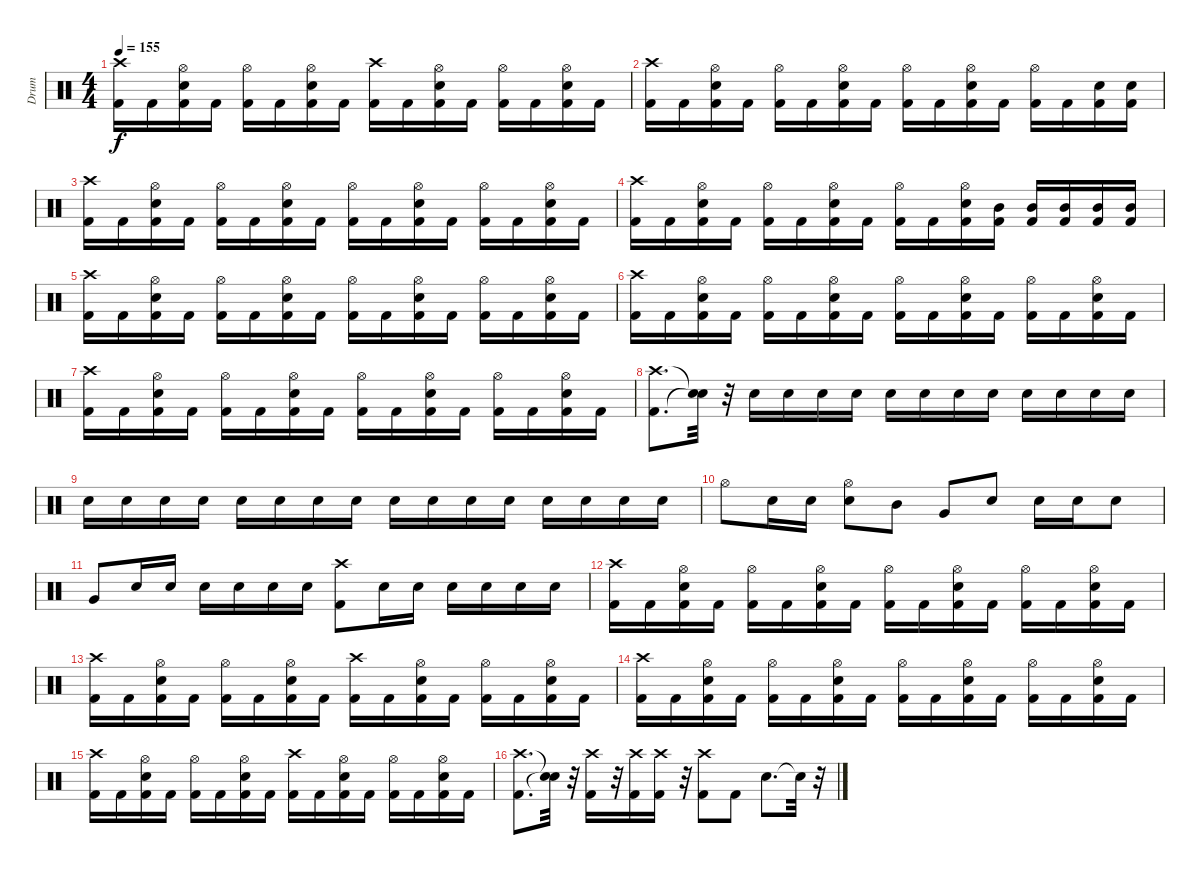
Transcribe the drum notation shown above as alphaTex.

\track ("Drum" "Drum") {instrument percussion}
\staff {score}
\articulation defaults
\ts (4 4)
\tempo 155
\clef neutral
\ks c
("Kick (hit) 2" "Crash high (hit)").16{dy f} "Kick (hit) 2".16 ("Kick (hit) 2" "Snare (hit) 2" "Hi-Hat (open)").16 "Kick (hit) 2".16 ("Kick (hit) 2" "Hi-Hat (open)").16 "Kick (hit) 2".16 ("Kick (hit) 2" "Snare (hit) 2" "Hi-Hat (open)").16 "Kick (hit) 2".16 ("Kick (hit) 2" "Crash high (hit)").16 "Kick (hit) 2".16 ("Kick (hit) 2" "Snare (hit) 2" "Hi-Hat (open)").16 "Kick (hit) 2".16 ("Kick (hit) 2" "Hi-Hat (open)").16 "Kick (hit) 2".16 ("Kick (hit) 2" "Snare (hit) 2" "Hi-Hat (open)").16 "Kick (hit) 2".16 |
("Kick (hit) 2" "Crash high (hit)").16 "Kick (hit) 2".16 ("Kick (hit) 2" "Snare (hit) 2" "Hi-Hat (open)").16 "Kick (hit) 2".16 ("Kick (hit) 2" "Hi-Hat (open)").16 "Kick (hit) 2".16 ("Kick (hit) 2" "Snare (hit) 2" "Hi-Hat (open)").16 "Kick (hit) 2".16 ("Kick (hit) 2" "Hi-Hat (open)").16 "Kick (hit) 2".16 ("Kick (hit) 2" "Snare (hit) 2" "Hi-Hat (open)").16 "Kick (hit) 2".16 ("Kick (hit) 2" "Hi-Hat (open)").16 "Kick (hit) 2".16 ("Kick (hit) 2" "Snare (hit) 2").16 ("Kick (hit) 2" "Snare (hit) 2").16 |
("Kick (hit) 2" "Crash high (hit)").16 "Kick (hit) 2".16 ("Kick (hit) 2" "Snare (hit) 2" "Hi-Hat (open)").16 "Kick (hit) 2".16 ("Kick (hit) 2" "Hi-Hat (open)").16 "Kick (hit) 2".16 ("Kick (hit) 2" "Snare (hit) 2" "Hi-Hat (open)").16 "Kick (hit) 2".16 ("Kick (hit) 2" "Hi-Hat (open)").16 "Kick (hit) 2".16 ("Kick (hit) 2" "Snare (hit) 2" "Hi-Hat (open)").16 "Kick (hit) 2".16 ("Kick (hit) 2" "Hi-Hat (open)").16 "Kick (hit) 2".16 ("Kick (hit) 2" "Snare (hit) 2" "Hi-Hat (open)").16 "Kick (hit) 2".16 |
("Kick (hit) 2" "Crash high (hit)").16 "Kick (hit) 2".16 ("Kick (hit) 2" "Snare (hit) 2" "Hi-Hat (open)").16 "Kick (hit) 2".16 ("Kick (hit) 2" "Hi-Hat (open)").16 "Kick (hit) 2".16 ("Kick (hit) 2" "Snare (hit) 2" "Hi-Hat (open)").16 "Kick (hit) 2".16 ("Kick (hit) 2" "Hi-Hat (open)").16 "Kick (hit) 2".16 ("Kick (hit) 2" "Hi-Hat (open)" "Snare (hit) 2").16 ("Kick (hit) 2" "Mid Tom (hit)").16 ("Kick (hit) 2" "Mid Tom (hit)").16 ("Kick (hit) 2" "Mid Tom (hit)").16 ("Kick (hit) 2" "Mid Tom (hit)").16 ("Kick (hit) 2" "Mid Tom (hit)").16 |
("Kick (hit) 2" "Crash high (hit)").16 "Kick (hit) 2".16 ("Kick (hit) 2" "Snare (hit) 2" "Hi-Hat (open)").16 "Kick (hit) 2".16 ("Kick (hit) 2" "Hi-Hat (open)").16 "Kick (hit) 2".16 ("Kick (hit) 2" "Snare (hit) 2" "Hi-Hat (open)").16 "Kick (hit) 2".16 ("Kick (hit) 2" "Hi-Hat (open)").16 "Kick (hit) 2".16 ("Kick (hit) 2" "Snare (hit) 2" "Hi-Hat (open)").16 "Kick (hit) 2".16 ("Kick (hit) 2" "Hi-Hat (open)").16 "Kick (hit) 2".16 ("Kick (hit) 2" "Snare (hit) 2" "Hi-Hat (open)").16 "Kick (hit) 2".16 |
("Kick (hit) 2" "Crash high (hit)").16 "Kick (hit) 2".16 ("Kick (hit) 2" "Snare (hit) 2" "Hi-Hat (open)").16 "Kick (hit) 2".16 ("Kick (hit) 2" "Hi-Hat (open)").16 "Kick (hit) 2".16 ("Kick (hit) 2" "Snare (hit) 2" "Hi-Hat (open)").16 "Kick (hit) 2".16 ("Kick (hit) 2" "Hi-Hat (open)").16 "Kick (hit) 2".16 ("Kick (hit) 2" "Snare (hit) 2" "Hi-Hat (open)").16 "Kick (hit) 2".16 ("Kick (hit) 2" "Hi-Hat (open)").16 "Kick (hit) 2".16 ("Kick (hit) 2" "Snare (hit) 2" "Hi-Hat (open)").16 "Kick (hit) 2".16 |
("Kick (hit) 2" "Crash high (hit)").16 "Kick (hit) 2".16 ("Kick (hit) 2" "Snare (hit) 2" "Hi-Hat (open)").16 "Kick (hit) 2".16 ("Kick (hit) 2" "Hi-Hat (open)").16 "Kick (hit) 2".16 ("Kick (hit) 2" "Snare (hit) 2" "Hi-Hat (open)").16 "Kick (hit) 2".16 ("Kick (hit) 2" "Hi-Hat (open)").16 "Kick (hit) 2".16 ("Kick (hit) 2" "Snare (hit) 2" "Hi-Hat (open)").16 "Kick (hit) 2".16 ("Kick (hit) 2" "Hi-Hat (open)").16 "Kick (hit) 2".16 ("Kick (hit) 2" "Snare (hit) 2" "Hi-Hat (open)").16 "Kick (hit) 2".16 |
("Kick (hit) 2" "Crash high (hit)").8{d} ("Snare (hit)"{t} "Snare (hit)"{t}).32 r.32 "Snare (hit) 2".16 "Snare (hit) 2".16 "Snare (hit) 2".16 "Snare (hit) 2".16 "Snare (hit) 2".16 "Snare (hit) 2".16 "Snare (hit) 2".16 "Snare (hit) 2".16 "Snare (hit) 2".16 "Snare (hit) 2".16 "Snare (hit) 2".16 "Snare (hit) 2".16 |
"Snare (hit) 2".16 "Snare (hit) 2".16 "Snare (hit) 2".16 "Snare (hit) 2".16 "Snare (hit) 2".16 "Snare (hit) 2".16 "Snare (hit) 2".16 "Snare (hit) 2".16 "Snare (hit) 2".16 "Snare (hit) 2".16 "Snare (hit) 2".16 "Snare (hit) 2".16 "Snare (hit) 2".16 "Snare (hit) 2".16 "Snare (hit) 2".16 "Snare (hit) 2".16 |
"Hi-Hat (open)".8 "Snare (hit) 2".16 "Snare (hit) 2".16 ("Snare (hit) 2" "Hi-Hat (open)").8 "Mid Tom (hit)".8 "Very Low Tom (hit)".8 "Snare (hit) 2".8 "Snare (hit) 2".16 "Snare (hit) 2".16 "Snare (hit) 2".8 |
"Very Low Tom (hit)".8 "Snare (hit) 2".16 "Snare (hit) 2".16 "Snare (hit) 2".16 "Snare (hit) 2".16 "Snare (hit) 2".16 "Snare (hit) 2".16 ("Crash high (hit)" "Kick (hit) 2").8 "Snare (hit) 2".16 "Snare (hit) 2".16 "Snare (hit) 2".16 "Snare (hit) 2".16 "Snare (hit) 2".16 "Snare (hit) 2".16 |
("Kick (hit) 2" "Crash high (hit)").16 "Kick (hit) 2".16 ("Kick (hit) 2" "Snare (hit) 2" "Hi-Hat (open)").16 "Kick (hit) 2".16 ("Kick (hit) 2" "Hi-Hat (open)").16 "Kick (hit) 2".16 ("Kick (hit) 2" "Snare (hit) 2" "Hi-Hat (open)").16 "Kick (hit) 2".16 ("Kick (hit) 2" "Hi-Hat (open)").16 "Kick (hit) 2".16 ("Kick (hit) 2" "Snare (hit) 2" "Hi-Hat (open)").16 "Kick (hit) 2".16 ("Kick (hit) 2" "Hi-Hat (open)").16 "Kick (hit) 2".16 ("Kick (hit) 2" "Snare (hit) 2" "Hi-Hat (open)").16 "Kick (hit) 2".16 |
("Kick (hit) 2" "Crash high (hit)").16 "Kick (hit) 2".16 ("Kick (hit) 2" "Snare (hit) 2" "Hi-Hat (open)").16 "Kick (hit) 2".16 ("Kick (hit) 2" "Hi-Hat (open)").16 "Kick (hit) 2".16 ("Kick (hit) 2" "Snare (hit) 2" "Hi-Hat (open)").16 "Kick (hit) 2".16 ("Kick (hit) 2" "Crash high (hit)").16 "Kick (hit) 2".16 ("Kick (hit) 2" "Snare (hit) 2" "Hi-Hat (open)").16 "Kick (hit) 2".16 ("Kick (hit) 2" "Hi-Hat (open)").16 "Kick (hit) 2".16 ("Kick (hit) 2" "Snare (hit) 2" "Hi-Hat (open)").16 "Kick (hit) 2".16 |
("Kick (hit) 2" "Crash high (hit)").16 "Kick (hit) 2".16 ("Kick (hit) 2" "Snare (hit) 2" "Hi-Hat (open)").16 "Kick (hit) 2".16 ("Kick (hit) 2" "Hi-Hat (open)").16 "Kick (hit) 2".16 ("Kick (hit) 2" "Snare (hit) 2" "Hi-Hat (open)").16 "Kick (hit) 2".16 ("Kick (hit) 2" "Hi-Hat (open)").16 "Kick (hit) 2".16 ("Kick (hit) 2" "Snare (hit) 2" "Hi-Hat (open)").16 "Kick (hit) 2".16 ("Kick (hit) 2" "Hi-Hat (open)").16 "Kick (hit) 2".16 ("Kick (hit) 2" "Snare (hit) 2" "Hi-Hat (open)").16 "Kick (hit) 2".16 |
("Kick (hit) 2" "Crash high (hit)").16 "Kick (hit) 2".16 ("Kick (hit) 2" "Snare (hit) 2" "Hi-Hat (open)").16 "Kick (hit) 2".16 ("Kick (hit) 2" "Hi-Hat (open)").16 "Kick (hit) 2".16 ("Kick (hit) 2" "Snare (hit) 2" "Hi-Hat (open)").16 "Kick (hit) 2".16 ("Kick (hit) 2" "Crash high (hit)").16 "Kick (hit) 2".16 ("Kick (hit) 2" "Snare (hit) 2" "Hi-Hat (open)").16 "Kick (hit) 2".16 ("Kick (hit) 2" "Hi-Hat (open)").16 "Kick (hit) 2".16 ("Kick (hit) 2" "Snare (hit) 2" "Hi-Hat (open)").16 "Kick (hit) 2".16 |
("Kick (hit) 2" "Crash high (hit)").8{d} ("Snare (hit)"{t} "Snare (hit)"{t}).32 r.32 ("Kick (hit) 2" "Crash high (hit)").16 r.32 ("Kick (hit) 2" "Crash high (hit)").16 ("Kick (hit) 2" "Crash high (hit)").16 r.32 ("Kick (hit) 2" "Crash high (hit)").8 "Kick (hit) 2".8 "Snare (hit) 2".8{d} "Snare (hit)"{t}.32 r.32
